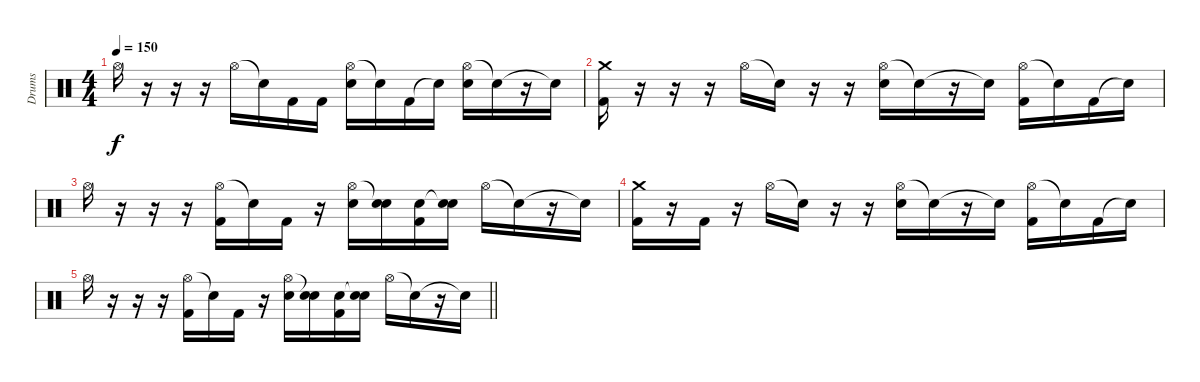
\track ("Drums" "Drums") {instrument percussion}
\staff {score}
\articulation defaults
\ts (4 4)
\tempo 150
\clef neutral
\ks c "Hi-Hat (open)".16{dy f}
r.16 r.16 r.16 "Hi-Hat (open)".16 "Snare (hit)"{t}.16 "Kick (hit) 2".16 "Kick (hit) 2".16 ("Hi-Hat (open)" "Snare (hit) 2").16 "Snare (hit)"{t}.16 "Kick (hit) 2".16 "Snare (hit)"{t}.16 ("Hi-Hat (open)" "Snare (hit) 2").16 "Snare (hit)"{t}.16 r.16 "Snare (hit)"{t}.16 |
("Crash medium (hit)" "Kick (hit) 2").16 r.16 r.16 r.16 "Hi-Hat (open)".16 "Snare (hit)"{t}.16 r.16 r.16 ("Hi-Hat (open)" "Snare (hit) 2").16 "Snare (hit)"{t}.16 r.16 "Snare (hit)"{t}.16 ("Hi-Hat (open)" "Kick (hit) 2").16 "Snare (hit)"{t}.16 "Kick (hit) 2".16 "Snare (hit)"{t}.16 |
"Hi-Hat (open)".16 r.16 r.16 r.16 ("Hi-Hat (open)" "Kick (hit) 2").16 "Snare (hit)"{t}.16 "Kick (hit) 2".16 r.16 ("Hi-Hat (open)" "Snare (hit) 2").16 ("Snare (hit)"{t} "Snare (hit) 2").16 ("Snare (hit) 2" "Kick (hit) 2").16 ("Snare (hit)"{t} "Snare (hit) 2").16 "Hi-Hat (open)".16 "Snare (hit)"{t}.16 r.16 "Snare (hit)"{t}.16 |
("Crash medium (hit)" "Kick (hit) 2").16 r.16 "Kick (hit) 2".16 r.16 "Hi-Hat (open)".16 "Snare (hit)"{t}.16 r.16 r.16 ("Hi-Hat (open)" "Snare (hit) 2").16 "Snare (hit)"{t}.16 r.16 "Snare (hit)"{t}.16 ("Hi-Hat (open)" "Kick (hit) 2").16 "Snare (hit)"{t}.16 "Kick (hit) 2".16 "Snare (hit)"{t}.16 |
\barLineRight lightlight "Hi-Hat (open)".16
r.16 r.16 r.16 ("Hi-Hat (open)" "Kick (hit) 2").16 "Snare (hit)"{t}.16 "Kick (hit) 2".16 r.16 ("Hi-Hat (open)" "Snare (hit) 2").16 ("Snare (hit)"{t} "Snare (hit) 2").16 ("Snare (hit) 2" "Kick (hit) 2").16 ("Snare (hit)"{t} "Snare (hit) 2").16 "Hi-Hat (open)".16 "Snare (hit)"{t}.16 r.16 "Snare (hit)"{t}.16
